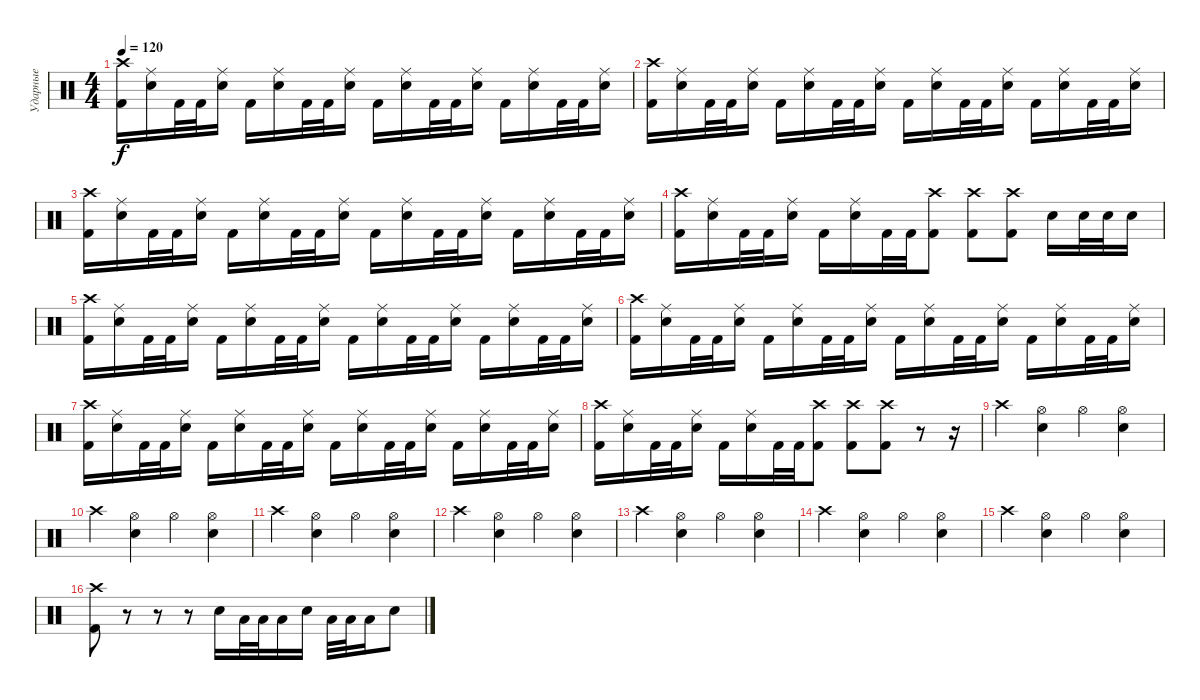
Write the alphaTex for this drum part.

\track ("Ударные" "Ударные") {instrument percussion}
\staff {score}
\articulation defaults
\ts (4 4)
\tempo 120
\clef neutral
\ks c
("Kick (hit) 2" "Crash high (hit)").16{dy f} ("Electric Snare (hit)" "Ride (middle)").16 "Kick (hit) 2".32 "Kick (hit) 2".32 ("Electric Snare (hit)" "Ride (middle)").16 "Kick (hit) 2".16 ("Electric Snare (hit)" "Ride (middle)").16 "Kick (hit) 2".32 "Kick (hit) 2".32 ("Electric Snare (hit)" "Ride (middle)").16 "Kick (hit) 2".16 ("Electric Snare (hit)" "Ride (middle)").16 "Kick (hit) 2".32 "Kick (hit) 2".32 ("Electric Snare (hit)" "Ride (middle)").16 "Kick (hit) 2".16 ("Electric Snare (hit)" "Ride (middle)").16 "Kick (hit) 2".32 "Kick (hit) 2".32 ("Electric Snare (hit)" "Ride (middle)").16 |
("Kick (hit) 2" "Crash high (hit)").16 ("Electric Snare (hit)" "Ride (middle)").16 "Kick (hit) 2".32 "Kick (hit) 2".32 ("Electric Snare (hit)" "Ride (middle)").16 "Kick (hit) 2".16 ("Electric Snare (hit)" "Ride (middle)").16 "Kick (hit) 2".32 "Kick (hit) 2".32 ("Electric Snare (hit)" "Ride (middle)").16 "Kick (hit) 2".16 ("Electric Snare (hit)" "Ride (middle)").16 "Kick (hit) 2".32 "Kick (hit) 2".32 ("Electric Snare (hit)" "Ride (middle)").16 "Kick (hit) 2".16 ("Electric Snare (hit)" "Ride (middle)").16 "Kick (hit) 2".32 "Kick (hit) 2".32 ("Electric Snare (hit)" "Ride (middle)").16 |
("Kick (hit) 2" "Crash high (hit)").16 ("Electric Snare (hit)" "Ride (middle)").16 "Kick (hit) 2".32 "Kick (hit) 2".32 ("Electric Snare (hit)" "Ride (middle)").16 "Kick (hit) 2".16 ("Electric Snare (hit)" "Ride (middle)").16 "Kick (hit) 2".32 "Kick (hit) 2".32 ("Electric Snare (hit)" "Ride (middle)").16 "Kick (hit) 2".16 ("Electric Snare (hit)" "Ride (middle)").16 "Kick (hit) 2".32 "Kick (hit) 2".32 ("Electric Snare (hit)" "Ride (middle)").16 "Kick (hit) 2".16 ("Electric Snare (hit)" "Ride (middle)").16 "Kick (hit) 2".32 "Kick (hit) 2".32 ("Electric Snare (hit)" "Ride (middle)").16 |
("Kick (hit) 2" "Crash high (hit)").16 ("Electric Snare (hit)" "Ride (middle)").16 "Kick (hit) 2".32 "Kick (hit) 2".32 ("Electric Snare (hit)" "Ride (middle)").16 "Kick (hit) 2".16 ("Electric Snare (hit)" "Ride (middle)").16 "Kick (hit) 2".32 "Kick (hit) 2".32 ("Crash high (hit)" "Kick (hit) 2").8 ("Kick (hit) 2" "Crash high (hit)").8 ("Kick (hit) 2" "Crash high (hit)").8 "Electric Snare (hit)".16 "Electric Snare (hit)".32 "Electric Snare (hit)".32 "Electric Snare (hit)".16 |
("Kick (hit) 2" "Crash high (hit)").16 ("Electric Snare (hit)" "Ride (middle)").16 "Kick (hit) 2".32 "Kick (hit) 2".32 ("Electric Snare (hit)" "Ride (middle)").16 "Kick (hit) 2".16 ("Electric Snare (hit)" "Ride (middle)").16 "Kick (hit) 2".32 "Kick (hit) 2".32 ("Electric Snare (hit)" "Ride (middle)").16 "Kick (hit) 2".16 ("Electric Snare (hit)" "Ride (middle)").16 "Kick (hit) 2".32 "Kick (hit) 2".32 ("Electric Snare (hit)" "Ride (middle)").16 "Kick (hit) 2".16 ("Electric Snare (hit)" "Ride (middle)").16 "Kick (hit) 2".32 "Kick (hit) 2".32 ("Electric Snare (hit)" "Ride (middle)").16 |
("Kick (hit) 2" "Crash high (hit)").16 ("Electric Snare (hit)" "Ride (middle)").16 "Kick (hit) 2".32 "Kick (hit) 2".32 ("Electric Snare (hit)" "Ride (middle)").16 "Kick (hit) 2".16 ("Electric Snare (hit)" "Ride (middle)").16 "Kick (hit) 2".32 "Kick (hit) 2".32 ("Electric Snare (hit)" "Ride (middle)").16 "Kick (hit) 2".16 ("Electric Snare (hit)" "Ride (middle)").16 "Kick (hit) 2".32 "Kick (hit) 2".32 ("Electric Snare (hit)" "Ride (middle)").16 "Kick (hit) 2".16 ("Electric Snare (hit)" "Ride (middle)").16 "Kick (hit) 2".32 "Kick (hit) 2".32 ("Electric Snare (hit)" "Ride (middle)").16 |
("Kick (hit) 2" "Crash high (hit)").16 ("Electric Snare (hit)" "Ride (middle)").16 "Kick (hit) 2".32 "Kick (hit) 2".32 ("Electric Snare (hit)" "Ride (middle)").16 "Kick (hit) 2".16 ("Electric Snare (hit)" "Ride (middle)").16 "Kick (hit) 2".32 "Kick (hit) 2".32 ("Electric Snare (hit)" "Ride (middle)").16 "Kick (hit) 2".16 ("Electric Snare (hit)" "Ride (middle)").16 "Kick (hit) 2".32 "Kick (hit) 2".32 ("Electric Snare (hit)" "Ride (middle)").16 "Kick (hit) 2".16 ("Electric Snare (hit)" "Ride (middle)").16 "Kick (hit) 2".32 "Kick (hit) 2".32 ("Electric Snare (hit)" "Ride (middle)").16 |
("Kick (hit) 2" "Crash high (hit)").16 ("Electric Snare (hit)" "Ride (middle)").16 "Kick (hit) 2".32 "Kick (hit) 2".32 ("Electric Snare (hit)" "Ride (middle)").16 "Kick (hit) 2".16 ("Electric Snare (hit)" "Ride (middle)").16 "Kick (hit) 2".32 "Kick (hit) 2".32 ("Crash high (hit)" "Kick (hit) 2").8 ("Kick (hit) 2" "Crash high (hit)").8 ("Kick (hit) 2" "Crash high (hit)").8 r.8 r.16 |
"Crash high (hit)".4 ("Hi-Hat (open)" "Electric Snare (hit)").4 "Hi-Hat (open)".4 ("Hi-Hat (open)" "Electric Snare (hit)").4 |
"Crash high (hit)".4 ("Hi-Hat (open)" "Electric Snare (hit)").4 "Hi-Hat (open)".4 ("Hi-Hat (open)" "Electric Snare (hit)").4 |
"Crash high (hit)".4 ("Hi-Hat (open)" "Electric Snare (hit)").4 "Hi-Hat (open)".4 ("Hi-Hat (open)" "Electric Snare (hit)").4 |
"Crash high (hit)".4 ("Hi-Hat (open)" "Electric Snare (hit)").4 "Hi-Hat (open)".4 ("Hi-Hat (open)" "Electric Snare (hit)").4 |
"Crash high (hit)".4 ("Hi-Hat (open)" "Electric Snare (hit)").4 "Hi-Hat (open)".4 ("Hi-Hat (open)" "Electric Snare (hit)").4 |
"Crash high (hit)".4 ("Hi-Hat (open)" "Electric Snare (hit)").4 "Hi-Hat (open)".4 ("Hi-Hat (open)" "Electric Snare (hit)").4 |
"Crash high (hit)".4 ("Hi-Hat (open)" "Electric Snare (hit)").4 "Hi-Hat (open)".4 ("Hi-Hat (open)" "Electric Snare (hit)").4 |
("Kick (hit) 2" "Crash high (hit)").8 r.8 r.8 r.8 "Electric Snare (hit)".16 "Low Tom (hit)".32 "Low Tom (hit)".32 "Low Tom (hit)".16 "Electric Snare (hit)".16 "Low Tom (hit)".32 "Low Tom (hit)".32 "Low Tom (hit)".16 "Electric Snare (hit)".8
